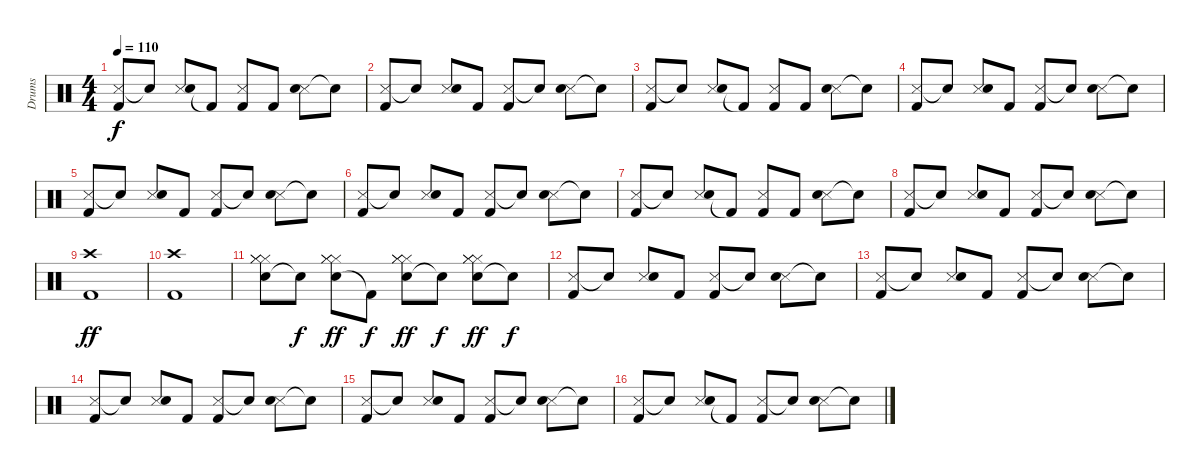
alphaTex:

\track ("Drums" "Drums") {instrument percussion}
\staff {score}
\articulation defaults
\ts (4 4)
\tempo 110
\clef neutral
\ks c
("Snare (side stick) 3" "Kick (hit) 2").8{dy f} "Electric Snare (hit)"{t}.8 ("Snare (side stick) 3" "Snare (hit) 2").8 "Kick (hit) 2"{t}.8 ("Snare (side stick) 3" "Kick (hit) 2").8 "Kick (hit) 2".8 ("Snare (side stick) 3" "Snare (hit) 2").8 "Electric Snare (hit)"{t}.8 |
("Snare (side stick) 3" "Kick (hit) 2").8 "Electric Snare (hit)"{t}.8 ("Snare (side stick) 3" "Snare (hit) 2").8 "Kick (hit) 2".8 ("Snare (side stick) 3" "Kick (hit) 2").8 "Electric Snare (hit)"{t}.8 ("Snare (side stick) 3" "Snare (hit) 2").8 "Electric Snare (hit)"{t}.8 |
("Snare (side stick) 3" "Kick (hit) 2").8 "Electric Snare (hit)"{t}.8 ("Snare (side stick) 3" "Snare (hit) 2").8 "Kick (hit) 2"{t}.8 ("Snare (side stick) 3" "Kick (hit) 2").8 "Kick (hit) 2".8 ("Snare (side stick) 3" "Snare (hit) 2").8 "Electric Snare (hit)"{t}.8 |
("Snare (side stick) 3" "Kick (hit) 2").8 "Electric Snare (hit)"{t}.8 ("Snare (side stick) 3" "Snare (hit) 2").8 "Kick (hit) 2".8 ("Snare (side stick) 3" "Kick (hit) 2").8 "Electric Snare (hit)"{t}.8 ("Snare (side stick) 3" "Snare (hit) 2").8 "Electric Snare (hit)"{t}.8 |
("Snare (side stick) 3" "Kick (hit) 2").8 "Electric Snare (hit)"{t}.8 ("Snare (side stick) 3" "Snare (hit) 2").8 "Kick (hit) 2".8 ("Snare (side stick) 3" "Kick (hit) 2").8 "Electric Snare (hit)"{t}.8 ("Snare (side stick) 3" "Snare (hit) 2").8 "Electric Snare (hit)"{t}.8 |
("Snare (side stick) 3" "Kick (hit) 2").8 "Electric Snare (hit)"{t}.8 ("Snare (side stick) 3" "Snare (hit) 2").8 "Kick (hit) 2".8 ("Snare (side stick) 3" "Kick (hit) 2").8 "Electric Snare (hit)"{t}.8 ("Snare (side stick) 3" "Snare (hit) 2").8 "Electric Snare (hit)"{t}.8 |
("Snare (side stick) 3" "Kick (hit) 2").8 "Electric Snare (hit)"{t}.8 ("Snare (side stick) 3" "Snare (hit) 2").8 "Kick (hit) 2"{t}.8 ("Snare (side stick) 3" "Kick (hit) 2").8 "Kick (hit) 2".8 ("Snare (side stick) 3" "Snare (hit) 2").8 "Electric Snare (hit)"{t}.8 |
("Snare (side stick) 3" "Kick (hit) 2").8 "Electric Snare (hit)"{t}.8 ("Snare (side stick) 3" "Snare (hit) 2").8 "Kick (hit) 2".8 ("Snare (side stick) 3" "Kick (hit) 2").8 "Electric Snare (hit)"{t}.8 ("Snare (side stick) 3" "Snare (hit) 2").8 "Electric Snare (hit)"{t}.8 |
("Crash high (hit)" "Kick (hit) 2").1{dy ff} |
("Crash high (hit)" "Kick (hit) 2").1 |
("Snare (hit) 2" "Hi-Hat (closed)" "Hi-Hat (closed)" "Hi-Hat (closed)").8 "Electric Snare (hit)"{t}.8{dy f} ("Snare (hit) 2" "Hi-Hat (closed)" "Hi-Hat (closed)" "Hi-Hat (closed)").8{dy ff} "Kick (hit) 2"{t}.8{dy f} ("Snare (hit) 2" "Hi-Hat (closed)" "Hi-Hat (closed)" "Hi-Hat (closed)").8{dy ff} "Electric Snare (hit)"{t}.8{dy f} ("Snare (hit) 2" "Hi-Hat (closed)" "Hi-Hat (closed)" "Hi-Hat (closed)").8{dy ff} "Snare (hit)"{t}.8{dy f} |
("Snare (side stick) 3" "Kick (hit) 2").8 "Electric Snare (hit)"{t}.8 ("Snare (side stick) 3" "Snare (hit) 2").8 "Kick (hit) 2".8 ("Snare (side stick) 3" "Kick (hit) 2").8 "Electric Snare (hit)"{t}.8 ("Snare (side stick) 3" "Snare (hit) 2").8 "Electric Snare (hit)"{t}.8 |
("Snare (side stick) 3" "Kick (hit) 2").8 "Electric Snare (hit)"{t}.8 ("Snare (side stick) 3" "Snare (hit) 2").8 "Kick (hit) 2".8 ("Snare (side stick) 3" "Kick (hit) 2").8 "Electric Snare (hit)"{t}.8 ("Snare (side stick) 3" "Snare (hit) 2").8 "Electric Snare (hit)"{t}.8 |
("Snare (side stick) 3" "Kick (hit) 2").8 "Electric Snare (hit)"{t}.8 ("Snare (side stick) 3" "Snare (hit) 2").8 "Kick (hit) 2".8 ("Snare (side stick) 3" "Kick (hit) 2").8 "Electric Snare (hit)"{t}.8 ("Snare (side stick) 3" "Snare (hit) 2").8 "Electric Snare (hit)"{t}.8 |
("Snare (side stick) 3" "Kick (hit) 2").8 "Electric Snare (hit)"{t}.8 ("Snare (side stick) 3" "Snare (hit) 2").8 "Kick (hit) 2".8 ("Snare (side stick) 3" "Kick (hit) 2").8 "Electric Snare (hit)"{t}.8 ("Snare (side stick) 3" "Snare (hit) 2").8 "Electric Snare (hit)"{t}.8 |
("Snare (side stick) 3" "Kick (hit) 2").8 "Electric Snare (hit)"{t}.8 ("Snare (side stick) 3" "Snare (hit) 2").8 "Kick (hit) 2"{t}.8 ("Snare (side stick) 3" "Kick (hit) 2").8 "Electric Snare (hit)"{t}.8 ("Snare (side stick) 3" "Snare (hit) 2").8 "Electric Snare (hit)"{t}.8
